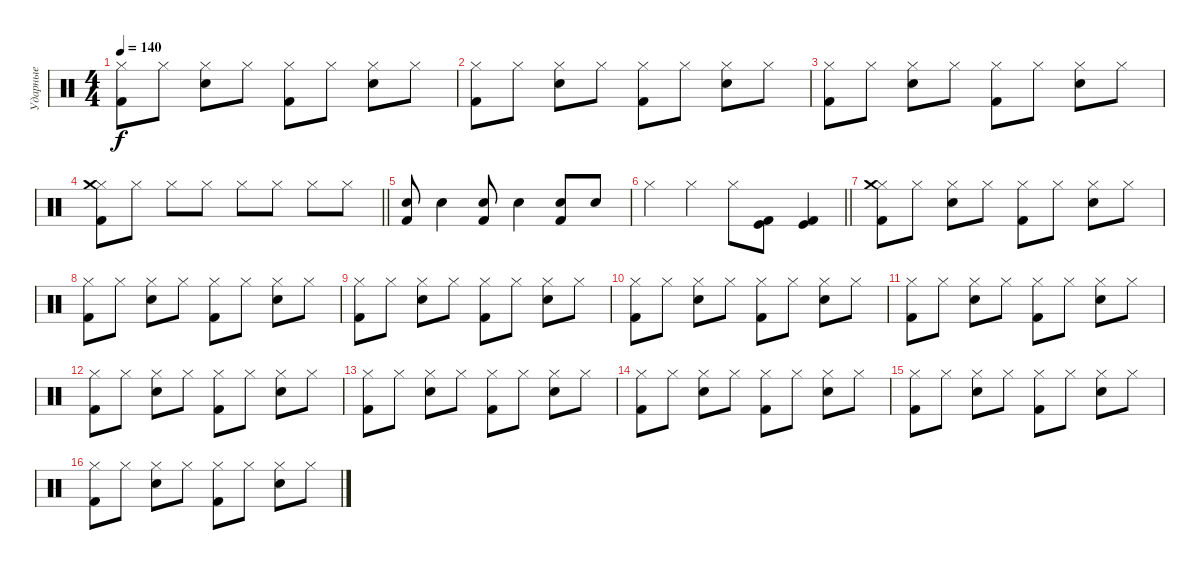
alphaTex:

\track ("Ударные" "Ударные") {instrument percussion}
\staff {score}
\articulation defaults
\ts (4 4)
\tempo 140
\clef neutral
\ks c
("Hi-Hat (closed)" "Kick (hit) 2").8{dy f} "Hi-Hat (closed)".8 ("Hi-Hat (closed)" "Snare (hit) 2").8 "Hi-Hat (closed)".8 ("Hi-Hat (closed)" "Kick (hit) 2").8 "Hi-Hat (closed)".8 ("Hi-Hat (closed)" "Snare (hit) 2").8 "Hi-Hat (closed)".8 |
("Hi-Hat (closed)" "Kick (hit) 2").8 "Hi-Hat (closed)".8 ("Hi-Hat (closed)" "Snare (hit) 2").8 "Hi-Hat (closed)".8 ("Hi-Hat (closed)" "Kick (hit) 2").8 "Hi-Hat (closed)".8 ("Hi-Hat (closed)" "Snare (hit) 2").8 "Hi-Hat (closed)".8 |
("Hi-Hat (closed)" "Kick (hit) 2").8 "Hi-Hat (closed)".8 ("Hi-Hat (closed)" "Snare (hit) 2").8 "Hi-Hat (closed)".8 ("Hi-Hat (closed)" "Kick (hit) 2").8 "Hi-Hat (closed)".8 ("Hi-Hat (closed)" "Snare (hit) 2").8 "Hi-Hat (closed)".8 |
\barLineRight lightlight
("Hi-Hat (closed)" "Kick (hit) 2" "Crash medium (hit)").8 "Hi-Hat (closed)".8 "Hi-Hat (closed)".8 "Hi-Hat (closed)".8 "Hi-Hat (closed)".8 "Hi-Hat (closed)".8 "Hi-Hat (closed)".8 "Hi-Hat (closed)".8 |
("Kick (hit) 2" "Snare (hit) 2").8 "Snare (hit) 2".4 ("Kick (hit) 2" "Snare (hit) 2").8 "Snare (hit) 2".4 ("Kick (hit) 2" "Snare (hit) 2").8 "Snare (hit) 2".8 |
\barLineRight lightlight "Hi-Hat (closed)".4 "Hi-Hat (closed)".4 "Hi-Hat (closed)".8
("Kick (hit)" "Kick (hit) 2").8 ("Kick (hit) 2" "Kick (hit)").4 |
("Hi-Hat (closed)" "Kick (hit) 2" "Crash medium (hit)").8 "Hi-Hat (closed)".8 ("Hi-Hat (closed)" "Snare (hit) 2").8 "Hi-Hat (closed)".8 ("Hi-Hat (closed)" "Kick (hit) 2").8 "Hi-Hat (closed)".8 ("Hi-Hat (closed)" "Snare (hit) 2").8 "Hi-Hat (closed)".8 |
("Hi-Hat (closed)" "Kick (hit) 2").8 "Hi-Hat (closed)".8 ("Hi-Hat (closed)" "Snare (hit) 2").8 "Hi-Hat (closed)".8 ("Hi-Hat (closed)" "Kick (hit) 2").8 "Hi-Hat (closed)".8 ("Hi-Hat (closed)" "Snare (hit) 2").8 "Hi-Hat (closed)".8 |
("Hi-Hat (closed)" "Kick (hit) 2").8 "Hi-Hat (closed)".8 ("Hi-Hat (closed)" "Snare (hit) 2").8 "Hi-Hat (closed)".8 ("Hi-Hat (closed)" "Kick (hit) 2").8 "Hi-Hat (closed)".8 ("Hi-Hat (closed)" "Snare (hit) 2").8 "Hi-Hat (closed)".8 |
("Hi-Hat (closed)" "Kick (hit) 2").8 "Hi-Hat (closed)".8 ("Hi-Hat (closed)" "Snare (hit) 2").8 "Hi-Hat (closed)".8 ("Hi-Hat (closed)" "Kick (hit) 2").8 "Hi-Hat (closed)".8 ("Hi-Hat (closed)" "Snare (hit) 2").8 "Hi-Hat (closed)".8 |
("Hi-Hat (closed)" "Kick (hit) 2").8 "Hi-Hat (closed)".8 ("Hi-Hat (closed)" "Snare (hit) 2").8 "Hi-Hat (closed)".8 ("Hi-Hat (closed)" "Kick (hit) 2").8 "Hi-Hat (closed)".8 ("Hi-Hat (closed)" "Snare (hit) 2").8 "Hi-Hat (closed)".8 |
("Hi-Hat (closed)" "Kick (hit) 2").8 "Hi-Hat (closed)".8 ("Hi-Hat (closed)" "Snare (hit) 2").8 "Hi-Hat (closed)".8 ("Hi-Hat (closed)" "Kick (hit) 2").8 "Hi-Hat (closed)".8 ("Hi-Hat (closed)" "Snare (hit) 2").8 "Hi-Hat (closed)".8 |
("Hi-Hat (closed)" "Kick (hit) 2").8 "Hi-Hat (closed)".8 ("Hi-Hat (closed)" "Snare (hit) 2").8 "Hi-Hat (closed)".8 ("Hi-Hat (closed)" "Kick (hit) 2").8 "Hi-Hat (closed)".8 ("Hi-Hat (closed)" "Snare (hit) 2").8 "Hi-Hat (closed)".8 |
("Hi-Hat (closed)" "Kick (hit) 2").8 "Hi-Hat (closed)".8 ("Hi-Hat (closed)" "Snare (hit) 2").8 "Hi-Hat (closed)".8 ("Hi-Hat (closed)" "Kick (hit) 2").8 "Hi-Hat (closed)".8 ("Hi-Hat (closed)" "Snare (hit) 2").8 "Hi-Hat (closed)".8 |
("Hi-Hat (closed)" "Kick (hit) 2").8 "Hi-Hat (closed)".8 ("Hi-Hat (closed)" "Snare (hit) 2").8 "Hi-Hat (closed)".8 ("Hi-Hat (closed)" "Kick (hit) 2").8 "Hi-Hat (closed)".8 ("Hi-Hat (closed)" "Snare (hit) 2").8 "Hi-Hat (closed)".8 |
("Hi-Hat (closed)" "Kick (hit) 2").8 "Hi-Hat (closed)".8 ("Hi-Hat (closed)" "Snare (hit) 2").8 "Hi-Hat (closed)".8 ("Hi-Hat (closed)" "Kick (hit) 2").8 "Hi-Hat (closed)".8 ("Hi-Hat (closed)" "Snare (hit) 2").8 "Hi-Hat (closed)".8
